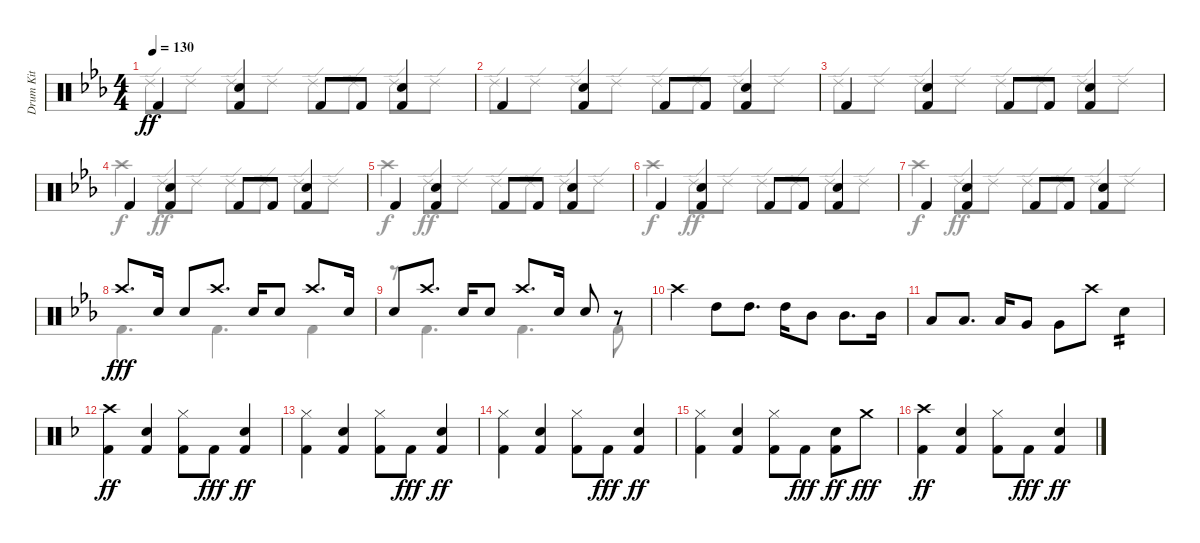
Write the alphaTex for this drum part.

\track ("Drum Kit" "Drum Kit") {instrument percussion}
\staff {score}
\articulation defaults
\voice
\ts (4 4)
\tempo 130
\clef neutral
\ks cminor "Kick (hit) 2".4{dy ff}
("Kick (hit) 2" "Electric Snare (hit)").4 "Kick (hit) 2".8 "Kick (hit) 2".8 ("Kick (hit) 2" "Electric Snare (hit)").4 |
"Kick (hit) 2".4 ("Kick (hit) 2" "Electric Snare (hit)").4 "Kick (hit) 2".8 "Kick (hit) 2".8 ("Kick (hit) 2" "Electric Snare (hit)").4 |
"Kick (hit) 2".4 ("Kick (hit) 2" "Electric Snare (hit)").4 "Kick (hit) 2".8 "Kick (hit) 2".8 ("Kick (hit) 2" "Electric Snare (hit)").4 |
"Kick (hit) 2".4 ("Kick (hit) 2" "Electric Snare (hit)").4 "Kick (hit) 2".8 "Kick (hit) 2".8 ("Kick (hit) 2" "Electric Snare (hit)").4 |
"Kick (hit) 2".4 ("Kick (hit) 2" "Electric Snare (hit)").4 "Kick (hit) 2".8 "Kick (hit) 2".8 ("Kick (hit) 2" "Electric Snare (hit)").4 |
"Kick (hit) 2".4 ("Kick (hit) 2" "Electric Snare (hit)").4 "Kick (hit) 2".8 "Kick (hit) 2".8 ("Kick (hit) 2" "Electric Snare (hit)").4 |
"Kick (hit) 2".4 ("Kick (hit) 2" "Electric Snare (hit)").4 "Kick (hit) 2".8 "Kick (hit) 2".8 ("Kick (hit) 2" "Electric Snare (hit)").4 |
"Crash high (hit)".8{d dy fff} "Electric Snare (hit)".16 "Electric Snare (hit)".8 "Crash high (hit)".8{d} "Electric Snare (hit)".16 "Electric Snare (hit)".8 "Crash high (hit)".8{d} "Electric Snare (hit)".16 |
"Electric Snare (hit)".8 "Crash high (hit)".8{d} "Electric Snare (hit)".16 "Electric Snare (hit)".8 "Crash high (hit)".8{d} "Electric Snare (hit)".16 "Electric Snare (hit)".8 r.8 |
"Crash high (hit)".4 "High Tom (hit)".8 "High Tom (hit)".8{d} "High Tom (hit)".16 "Mid Tom (hit)".8 "Mid Tom (hit)".8{d} "Mid Tom (hit)".16 |
"Low Tom (hit)".8 "Low Tom (hit)".8{d} "Low Tom (hit)".16 "Very Low Tom (hit)".8 "Very Low Tom (hit)".8 "Crash high (hit)".8 "Electric Snare (hit)".4{tp 2} |
\ks dminor
("Kick (hit) 2" "Crash high (hit)").4{dy ff volume 13} ("Kick (hit) 2" "Electric Snare (hit)").4 ("Kick (hit) 2" "Hi-Hat (closed)").8 "Kick (hit) 2".8{dy fff} ("Kick (hit) 2" "Electric Snare (hit)").4{dy ff} |
("Kick (hit) 2" "Hi-Hat (closed)").4 ("Kick (hit) 2" "Electric Snare (hit)").4 ("Kick (hit) 2" "Hi-Hat (closed)").8 "Kick (hit) 2".8{dy fff} ("Kick (hit) 2" "Electric Snare (hit)").4{dy ff} |
("Kick (hit) 2" "Hi-Hat (closed)").4 ("Kick (hit) 2" "Electric Snare (hit)").4 ("Kick (hit) 2" "Hi-Hat (closed)").8 "Kick (hit) 2".8{dy fff} ("Kick (hit) 2" "Electric Snare (hit)").4{dy ff} |
("Kick (hit) 2" "Hi-Hat (closed)").4 ("Kick (hit) 2" "Electric Snare (hit)").4 ("Kick (hit) 2" "Hi-Hat (closed)").8 "Kick (hit) 2".8{dy fff} ("Kick (hit) 2" "Electric Snare (hit)").8{dy ff} "Crash medium (hit)".8{dy fff} |
("Kick (hit) 2" "Crash high (hit)").4{dy ff} ("Kick (hit) 2" "Electric Snare (hit)").4 ("Kick (hit) 2" "Hi-Hat (closed)").8 "Kick (hit) 2".8{dy fff} ("Kick (hit) 2" "Electric Snare (hit)").4{dy ff}
\voice
\clef neutral
\ottava regular
\simile none
\ks cminor "Ride (edge) 2".8{dy ff} "Ride (edge) 2".8 "Ride (edge) 2".8 "Ride (edge) 2".8 "Ride (edge) 2".8 "Ride (edge) 2".8 "Ride (edge) 2".8 "Ride (edge) 2".8
|
"Ride (edge) 2".8 "Ride (edge) 2".8 "Ride (edge) 2".8 "Ride (edge) 2".8 "Ride (edge) 2".8 "Ride (edge) 2".8 "Ride (edge) 2".8 "Ride (edge) 2".8 |
"Ride (edge) 2".8 "Ride (edge) 2".8 "Ride (edge) 2".8 "Ride (edge) 2".8 "Ride (edge) 2".8 "Ride (edge) 2".8 "Ride (edge) 2".8 "Ride (edge) 2".8 |
"Crash high (hit)".4{dy f} "Ride (edge) 2".8{dy ff} "Ride (edge) 2".8 "Ride (edge) 2".8 "Ride (edge) 2".8 "Ride (edge) 2".8 "Ride (edge) 2".8 |
"Crash high (hit)".4{dy f} "Ride (edge) 2".8{dy ff} "Ride (edge) 2".8 "Ride (edge) 2".8 "Ride (edge) 2".8 "Ride (edge) 2".8 "Ride (edge) 2".8 |
"Crash high (hit)".4{dy f} "Ride (edge) 2".8{dy ff} "Ride (edge) 2".8 "Ride (edge) 2".8 "Ride (edge) 2".8 "Ride (edge) 2".8 "Ride (edge) 2".8 |
"Crash high (hit)".4{dy f} "Ride (edge) 2".8{dy ff} "Ride (edge) 2".8 "Ride (edge) 2".8 "Ride (edge) 2".8 "Ride (edge) 2".8 "Ride (edge) 2".8 |
"Kick (hit) 2".4{d dy fff} "Kick (hit) 2".4{d} "Kick (hit) 2".4 |
r.8 "Kick (hit) 2".4{d} "Kick (hit) 2".4{d} "Kick (hit) 2".8 |
|
|
\ks dminor
|
|
|
|
